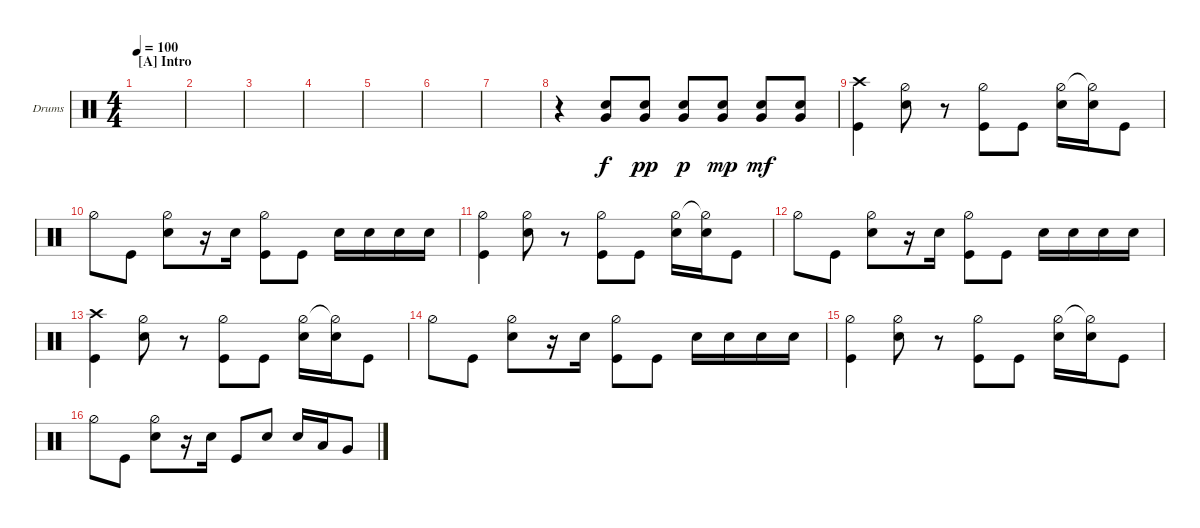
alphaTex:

\defaultSystemsLayout 4
\bracketExtendMode groupsimilarinstruments
\firstSystemTrackNameOrientation horizontal
\otherSystemsTrackNameOrientation horizontal
\track ("Drumkit" "Drums") {instrument percussion}
\staff {score}
\articulation defaults
\ts (4 4)
\section ("A" "Intro")
\tempo 100
\clef neutral
\scale
0.474178
\ks c
|
\scale
0.262911 |
\scale
0.262911 |
\scale
0.333333 |
\scale
0.333333 |
\scale
0.333333 |
|
r.4 ("Very Low Tom (hit)" "Snare (hit) 2").8 ("Very Low Tom (hit)" "Snare (hit) 2").8{dy pp} ("Snare (hit) 2" "Very Low Tom (hit)").8{dy p} ("Very Low Tom (hit)" "Snare (hit) 2").8{dy mp} ("Very Low Tom (hit)" "Snare (hit) 2").8{dy mf} ("Very Low Tom (hit)" "Snare (hit) 2").8 |
("Crash high (hit)" "Kick (hit)").4 ("Snare (hit) 2" "Hi-Hat (half)").8 r.8 ("Kick (hit)" "Hi-Hat (half)").8 "Kick (hit)".8 ("Snare (hit) 2" "Hi-Hat (half)").16 ("Snare (hit) 2" "Hi-Hat (half)"{t}).16 "Kick (hit)".8 |
"Hi-Hat (half)".8 "Kick (hit)".8 ("Hi-Hat (half)" "Snare (hit) 2").8 r.16 "Snare (hit) 2".16 ("Kick (hit)" "Hi-Hat (half)").8 "Kick (hit)".8 "Snare (hit) 2".16 "Snare (hit) 2".16 "Snare (hit) 2".16 "Snare (hit) 2".16 |
("Kick (hit)" "Hi-Hat (half)").4 ("Snare (hit) 2" "Hi-Hat (half)").8 r.8 ("Kick (hit)" "Hi-Hat (half)").8 "Kick (hit)".8 ("Snare (hit) 2" "Hi-Hat (half)").16 ("Snare (hit) 2" "Hi-Hat (half)"{t}).16 "Kick (hit)".8 |
"Hi-Hat (half)".8 "Kick (hit)".8 ("Hi-Hat (half)" "Snare (hit) 2").8 r.16 "Snare (hit) 2".16 ("Kick (hit)" "Hi-Hat (half)").8 "Kick (hit)".8 "Snare (hit) 2".16 "Snare (hit) 2".16 "Snare (hit) 2".16 "Snare (hit) 2".16 |
("Crash high (hit)" "Kick (hit)").4 ("Snare (hit) 2" "Hi-Hat (half)").8 r.8 ("Kick (hit)" "Hi-Hat (half)").8 "Kick (hit)".8 ("Snare (hit) 2" "Hi-Hat (half)").16 ("Snare (hit) 2" "Hi-Hat (half)"{t}).16 "Kick (hit)".8 |
"Hi-Hat (half)".8 "Kick (hit)".8 ("Hi-Hat (half)" "Snare (hit) 2").8 r.16 "Snare (hit) 2".16 ("Kick (hit)" "Hi-Hat (half)").8 "Kick (hit)".8 "Snare (hit) 2".16 "Snare (hit) 2".16 "Snare (hit) 2".16 "Snare (hit) 2".16 |
("Kick (hit)" "Hi-Hat (half)").4 ("Snare (hit) 2" "Hi-Hat (half)").8 r.8 ("Kick (hit)" "Hi-Hat (half)").8 "Kick (hit)".8 ("Snare (hit) 2" "Hi-Hat (half)").16 ("Snare (hit) 2" "Hi-Hat (half)"{t}).16 "Kick (hit)".8 |
"Hi-Hat (half)".8 "Kick (hit)".8 ("Hi-Hat (half)" "Snare (hit) 2").8 r.16 "Snare (hit) 2".16 "Kick (hit)".8 "Snare (hit) 2".8 "Snare (hit) 2".16 "Low Tom (hit)".16 "Very Low Tom (hit)".8
